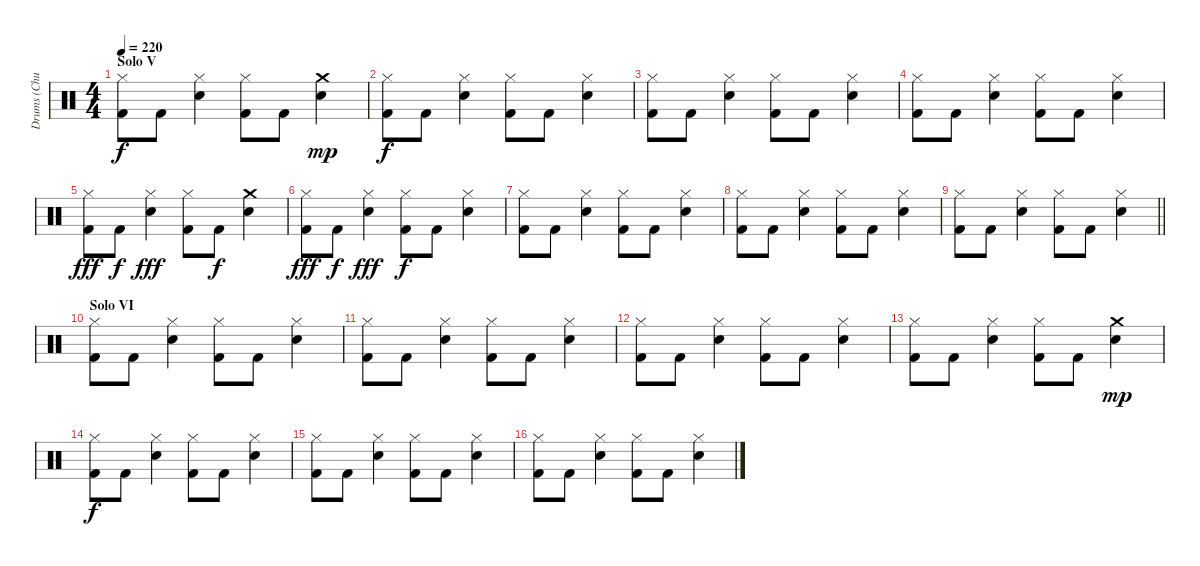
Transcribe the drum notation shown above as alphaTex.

\track ("Drums (Chuck Behler)" "Drums (Chu") {instrument percussion}
\staff {score}
\articulation defaults
\ts (4 4)
\section ("" "Solo V")
\tempo 220
\clef neutral
\ks c
("Hi-Hat (closed)" "Kick (hit) 2").8{dy f} "Kick (hit) 2".8 ("Hi-Hat (closed)" "Snare (hit) 2").4 ("Hi-Hat (closed)" "Kick (hit) 2").8 "Kick (hit) 2".8 ("Crash medium (hit)" "Snare (hit) 2").4{dy mp} |
("Hi-Hat (closed)" "Kick (hit) 2").8{dy f} "Kick (hit) 2".8 ("Hi-Hat (closed)" "Snare (hit) 2").4 ("Hi-Hat (closed)" "Kick (hit) 2").8 "Kick (hit) 2".8 ("Hi-Hat (closed)" "Snare (hit) 2").4 |
("Hi-Hat (closed)" "Kick (hit) 2").8 "Kick (hit) 2".8 ("Hi-Hat (closed)" "Snare (hit) 2").4 ("Hi-Hat (closed)" "Kick (hit) 2").8 "Kick (hit) 2".8 ("Hi-Hat (closed)" "Snare (hit) 2").4 |
("Hi-Hat (closed)" "Kick (hit) 2").8 "Kick (hit) 2".8 ("Hi-Hat (closed)" "Snare (hit) 2").4 ("Hi-Hat (closed)" "Kick (hit) 2").8 "Kick (hit) 2".8 ("Hi-Hat (closed)" "Snare (hit) 2").4 |
("Hi-Hat (closed)" "Kick (hit) 2").8{dy fff} "Kick (hit) 2".8{dy f} ("Hi-Hat (closed)" "Snare (hit) 2").4{dy fff} ("Hi-Hat (closed)" "Kick (hit) 2").8 "Kick (hit) 2".8{dy f} ("Crash medium (hit)" "Snare (hit) 2").4 |
("Hi-Hat (closed)" "Kick (hit) 2").8{dy fff} "Kick (hit) 2".8{dy f} ("Hi-Hat (closed)" "Snare (hit) 2").4{dy fff} ("Hi-Hat (closed)" "Kick (hit) 2").8{dy f} "Kick (hit) 2".8 ("Hi-Hat (closed)" "Snare (hit) 2").4 |
("Hi-Hat (closed)" "Kick (hit) 2").8 "Kick (hit) 2".8 ("Hi-Hat (closed)" "Snare (hit) 2").4 ("Hi-Hat (closed)" "Kick (hit) 2").8 "Kick (hit) 2".8 ("Hi-Hat (closed)" "Snare (hit) 2").4 |
("Hi-Hat (closed)" "Kick (hit) 2").8 "Kick (hit) 2".8 ("Hi-Hat (closed)" "Snare (hit) 2").4 ("Hi-Hat (closed)" "Kick (hit) 2").8 "Kick (hit) 2".8 ("Hi-Hat (closed)" "Snare (hit) 2").4 |
\barLineRight lightlight
("Hi-Hat (closed)" "Kick (hit) 2").8 "Kick (hit) 2".8 ("Hi-Hat (closed)" "Snare (hit) 2").4 ("Hi-Hat (closed)" "Kick (hit) 2").8 "Kick (hit) 2".8 ("Hi-Hat (closed)" "Snare (hit) 2").4 |
\section ("" "Solo VI")
("Hi-Hat (closed)" "Kick (hit) 2").8 "Kick (hit) 2".8 ("Hi-Hat (closed)" "Snare (hit) 2").4 ("Hi-Hat (closed)" "Kick (hit) 2").8 "Kick (hit) 2".8 ("Hi-Hat (closed)" "Snare (hit) 2").4 |
("Hi-Hat (closed)" "Kick (hit) 2").8 "Kick (hit) 2".8 ("Hi-Hat (closed)" "Snare (hit) 2").4 ("Hi-Hat (closed)" "Kick (hit) 2").8 "Kick (hit) 2".8 ("Hi-Hat (closed)" "Snare (hit) 2").4 |
("Hi-Hat (closed)" "Kick (hit) 2").8 "Kick (hit) 2".8 ("Hi-Hat (closed)" "Snare (hit) 2").4 ("Hi-Hat (closed)" "Kick (hit) 2").8 "Kick (hit) 2".8 ("Hi-Hat (closed)" "Snare (hit) 2").4 |
("Hi-Hat (closed)" "Kick (hit) 2").8 "Kick (hit) 2".8 ("Hi-Hat (closed)" "Snare (hit) 2").4 ("Hi-Hat (closed)" "Kick (hit) 2").8 "Kick (hit) 2".8 ("Crash medium (hit)" "Snare (hit) 2").4{dy mp} |
("Hi-Hat (closed)" "Kick (hit) 2").8{dy f} "Kick (hit) 2".8 ("Hi-Hat (closed)" "Snare (hit) 2").4 ("Hi-Hat (closed)" "Kick (hit) 2").8 "Kick (hit) 2".8 ("Hi-Hat (closed)" "Snare (hit) 2").4 |
("Hi-Hat (closed)" "Kick (hit) 2").8 "Kick (hit) 2".8 ("Hi-Hat (closed)" "Snare (hit) 2").4 ("Hi-Hat (closed)" "Kick (hit) 2").8 "Kick (hit) 2".8 ("Hi-Hat (closed)" "Snare (hit) 2").4 |
("Hi-Hat (closed)" "Kick (hit) 2").8 "Kick (hit) 2".8 ("Hi-Hat (closed)" "Snare (hit) 2").4 ("Hi-Hat (closed)" "Kick (hit) 2").8 "Kick (hit) 2".8 ("Hi-Hat (closed)" "Snare (hit) 2").4
